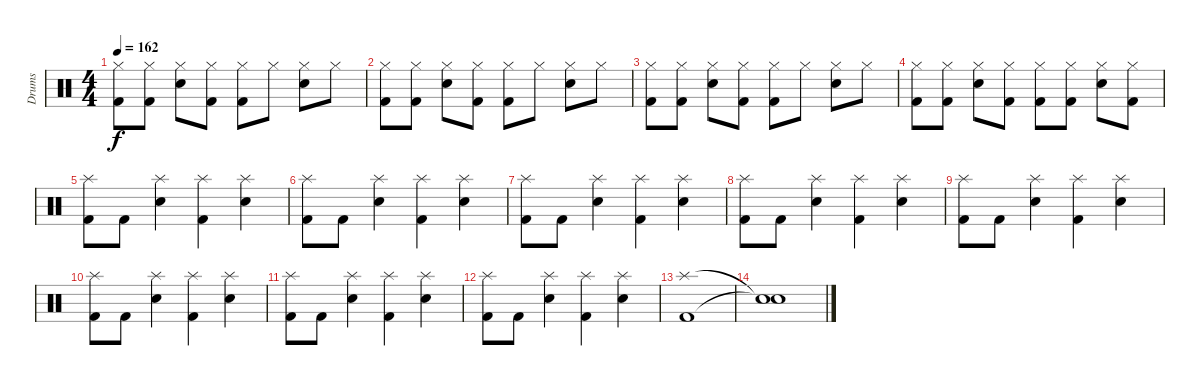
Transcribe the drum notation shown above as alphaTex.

\track ("Drums" "Drums") {instrument percussion}
\staff {score}
\articulation defaults
\ts (4 4)
\tempo 162
\clef neutral
\ks c
("Hi-Hat (closed)" "Kick (hit) 2").8{dy f} ("Hi-Hat (closed)" "Kick (hit) 2").8 ("Hi-Hat (closed)" "Snare (hit) 2").8 ("Hi-Hat (closed)" "Kick (hit) 2").8 ("Hi-Hat (closed)" "Kick (hit) 2").8 "Hi-Hat (closed)".8 ("Hi-Hat (closed)" "Snare (hit) 2").8 "Hi-Hat (closed)".8 |
("Hi-Hat (closed)" "Kick (hit) 2").8 ("Hi-Hat (closed)" "Kick (hit) 2").8 ("Hi-Hat (closed)" "Snare (hit) 2").8 ("Hi-Hat (closed)" "Kick (hit) 2").8 ("Hi-Hat (closed)" "Kick (hit) 2").8 "Hi-Hat (closed)".8 ("Hi-Hat (closed)" "Snare (hit) 2").8 "Hi-Hat (closed)".8 |
("Hi-Hat (closed)" "Kick (hit) 2").8 ("Hi-Hat (closed)" "Kick (hit) 2").8 ("Hi-Hat (closed)" "Snare (hit) 2").8 ("Hi-Hat (closed)" "Kick (hit) 2").8 ("Hi-Hat (closed)" "Kick (hit) 2").8 "Hi-Hat (closed)".8 ("Hi-Hat (closed)" "Snare (hit) 2").8 "Hi-Hat (closed)".8 |
("Hi-Hat (closed)" "Kick (hit) 2").8 ("Hi-Hat (closed)" "Kick (hit) 2").8 ("Hi-Hat (closed)" "Snare (hit) 2").8 ("Hi-Hat (closed)" "Kick (hit) 2").8 ("Hi-Hat (closed)" "Kick (hit) 2").8 ("Hi-Hat (closed)" "Kick (hit) 2").8 ("Hi-Hat (closed)" "Snare (hit) 2").8 ("Hi-Hat (closed)" "Kick (hit) 2").8 |
("Splash (hit)" "Kick (hit) 2").8 "Kick (hit) 2".8 ("Splash (hit)" "Snare (hit) 2").4 ("Splash (hit)" "Kick (hit) 2").4 ("Splash (hit)" "Snare (hit) 2").4 |
("Splash (hit)" "Kick (hit) 2").8 "Kick (hit) 2".8 ("Splash (hit)" "Snare (hit) 2").4 ("Splash (hit)" "Kick (hit) 2").4 ("Splash (hit)" "Snare (hit) 2").4 |
("Splash (hit)" "Kick (hit) 2").8 "Kick (hit) 2".8 ("Splash (hit)" "Snare (hit) 2").4 ("Splash (hit)" "Kick (hit) 2").4 ("Splash (hit)" "Snare (hit) 2").4 |
("Splash (hit)" "Kick (hit) 2").8 "Kick (hit) 2".8 ("Splash (hit)" "Snare (hit) 2").4 ("Splash (hit)" "Kick (hit) 2").4 ("Splash (hit)" "Snare (hit) 2").4 |
("Splash (hit)" "Kick (hit) 2").8 "Kick (hit) 2".8 ("Splash (hit)" "Snare (hit) 2").4 ("Splash (hit)" "Kick (hit) 2").4 ("Splash (hit)" "Snare (hit) 2").4 |
("Splash (hit)" "Kick (hit) 2").8 "Kick (hit) 2".8 ("Splash (hit)" "Snare (hit) 2").4 ("Splash (hit)" "Kick (hit) 2").4 ("Splash (hit)" "Snare (hit) 2").4 |
("Splash (hit)" "Kick (hit) 2").8 "Kick (hit) 2".8 ("Splash (hit)" "Snare (hit) 2").4 ("Splash (hit)" "Kick (hit) 2").4 ("Splash (hit)" "Snare (hit) 2").4 |
("Splash (hit)" "Kick (hit) 2").8 "Kick (hit) 2".8 ("Splash (hit)" "Snare (hit) 2").4 ("Splash (hit)" "Kick (hit) 2").4 ("Splash (hit)" "Snare (hit) 2").4 |
("Splash (hit)" "Kick (hit) 2").1 |
("Snare (hit)"{t} "Snare (hit)"{t}).1
